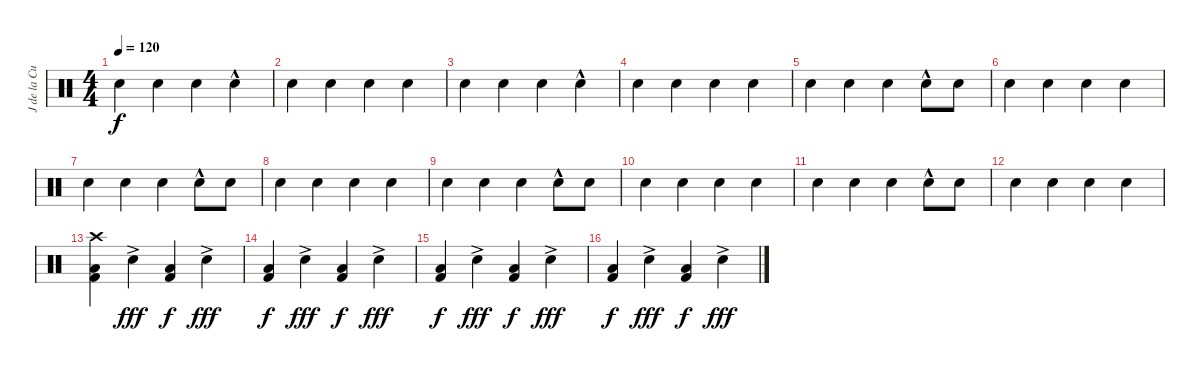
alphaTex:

\track ("J de la Cueva" "J de la Cu") {instrument percussion}
\staff {score}
\articulation defaults
\ts (4 4)
\tempo 120
\clef neutral
\ks c "Snare (hit) 2".4{dy f} "Snare (hit) 2".4 "Snare (hit) 2".4 "Snare (hit) 2"{hac}.4
|
"Snare (hit) 2".4 "Snare (hit) 2".4 "Snare (hit) 2".4 "Snare (hit) 2".4 |
"Snare (hit) 2".4 "Snare (hit) 2".4 "Snare (hit) 2".4 "Snare (hit) 2"{hac}.4 |
"Snare (hit) 2".4 "Snare (hit) 2".4 "Snare (hit) 2".4 "Snare (hit) 2".4 |
"Snare (hit) 2".4 "Snare (hit) 2".4 "Snare (hit) 2".4 "Snare (hit) 2"{hac}.8 "Electric Snare (hit)".8 |
"Snare (hit) 2".4 "Snare (hit) 2".4 "Snare (hit) 2".4 "Snare (hit) 2".4 |
"Snare (hit) 2".4 "Snare (hit) 2".4 "Snare (hit) 2".4 "Snare (hit) 2"{hac}.8 "Electric Snare (hit)".8 |
"Snare (hit) 2".4 "Snare (hit) 2".4 "Snare (hit) 2".4 "Snare (hit) 2".4 |
"Snare (hit) 2".4 "Snare (hit) 2".4 "Snare (hit) 2".4 "Snare (hit) 2"{hac}.8 "Electric Snare (hit)".8 |
"Snare (hit) 2".4 "Snare (hit) 2".4 "Snare (hit) 2".4 "Snare (hit) 2".4 |
"Snare (hit) 2".4 "Snare (hit) 2".4 "Snare (hit) 2".4 "Snare (hit) 2"{hac}.8 "Electric Snare (hit)".8 |
"Snare (hit) 2".4 "Snare (hit) 2".4 "Snare (hit) 2".4 "Snare (hit) 2".4 |
("Crash high (hit)" "Low Tom (hit)" "Kick (hit) 2").4 "Snare (hit) 2"{ac}.4{dy fff} ("Low Tom (hit)" "Kick (hit) 2").4{dy f} "Snare (hit) 2"{ac}.4{dy fff} |
("Low Tom (hit)" "Kick (hit) 2").4{dy f} "Snare (hit) 2"{ac}.4{dy fff} ("Low Tom (hit)" "Kick (hit) 2").4{dy f} "Snare (hit) 2"{ac}.4{dy fff} |
("Low Tom (hit)" "Kick (hit) 2").4{dy f} "Snare (hit) 2"{ac}.4{dy fff} ("Low Tom (hit)" "Kick (hit) 2").4{dy f} "Snare (hit) 2"{ac}.4{dy fff} |
("Low Tom (hit)" "Kick (hit) 2").4{dy f} "Snare (hit) 2"{ac}.4{dy fff} ("Low Tom (hit)" "Kick (hit) 2").4{dy f} "Snare (hit) 2"{ac}.4{dy fff}
